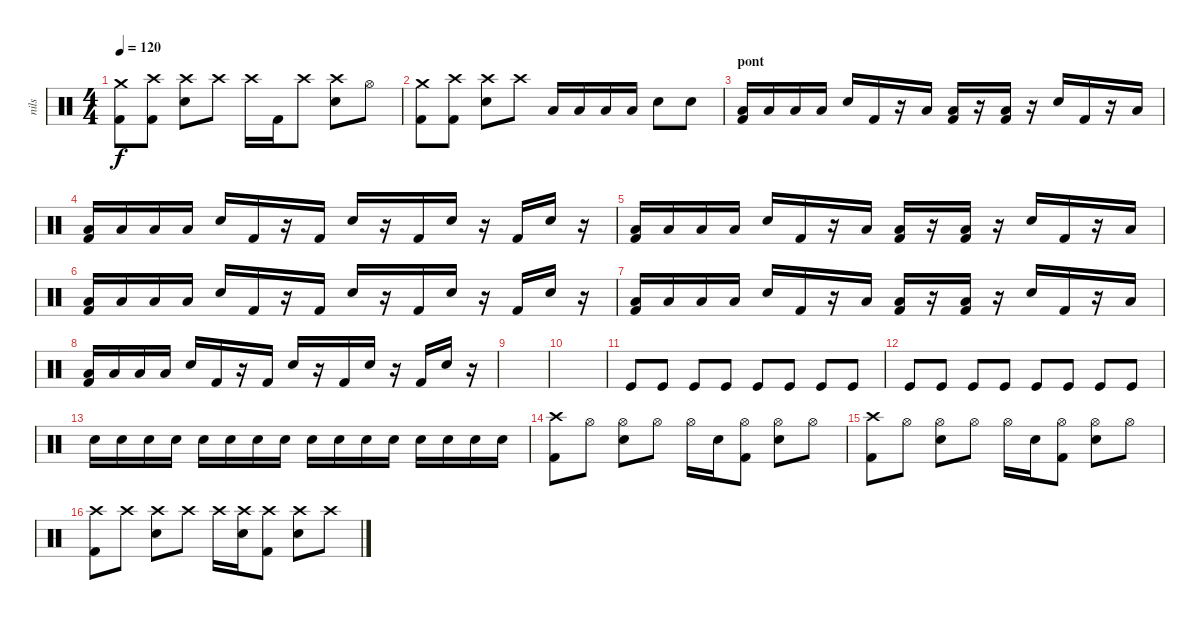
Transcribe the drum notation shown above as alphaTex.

\track ("nils" "nils") {instrument percussion}
\staff {score}
\articulation defaults
\ts (4 4)
\tempo 120
\clef neutral
\ks c
("Crash medium (hit)" "Kick (hit) 2").8{dy f volume 14 balance 8} ("Crash high (hit)" "Kick (hit) 2").8 ("Crash high (hit)" "Snare (hit) 2").8 "Crash high (hit)".8 "Crash high (hit)".16 "Kick (hit) 2".16 "Crash high (hit)".8 ("Crash high (hit)" "Snare (hit) 2").8 "Hi-Hat (open)".8 |
("Crash medium (hit)" "Kick (hit) 2").8{volume 14 balance 8} ("Crash high (hit)" "Kick (hit) 2").8 ("Crash high (hit)" "Snare (hit) 2").8 "Crash high (hit)".8 "Low Floor Tom (hit)".16 "Low Floor Tom (hit)".16 "Low Floor Tom (hit)".16 "Low Floor Tom (hit)".16 "Snare (hit) 2".8 "Snare (hit) 2".8 |
\section ("" "pont")
("Low Floor Tom (hit)" "Kick (hit) 2").16 "Low Floor Tom (hit)".16 "Low Floor Tom (hit)".16 "Low Floor Tom (hit)".16 "Snare (hit) 2".16 "Kick (hit) 2".16 r.16 "Low Tom (hit)".16 ("Low Floor Tom (hit)" "Kick (hit) 2").16 r.16 ("Low Floor Tom (hit)" "Kick (hit) 2").16 r.16 "Snare (hit) 2".16 "Kick (hit) 2".16 r.16 "Low Tom (hit)".16 |
("Low Floor Tom (hit)" "Kick (hit) 2").16 "Low Floor Tom (hit)".16 "Low Floor Tom (hit)".16 "Low Floor Tom (hit)".16 "Snare (hit) 2".16 "Kick (hit) 2".16 r.16 "Kick (hit) 2".16 "Snare (hit) 2".16 r.16 "Kick (hit) 2".16 "Snare (hit) 2".16 r.16 "Kick (hit) 2".16 "Snare (hit) 2".16 r.16 |
("Low Floor Tom (hit)" "Kick (hit) 2").16 "Low Floor Tom (hit)".16 "Low Floor Tom (hit)".16 "Low Floor Tom (hit)".16 "Snare (hit) 2".16 "Kick (hit) 2".16 r.16 "Low Tom (hit)".16 ("Low Floor Tom (hit)" "Kick (hit) 2").16 r.16 ("Low Floor Tom (hit)" "Kick (hit) 2").16 r.16 "Snare (hit) 2".16 "Kick (hit) 2".16 r.16 "Low Tom (hit)".16 |
("Low Floor Tom (hit)" "Kick (hit) 2").16 "Low Floor Tom (hit)".16 "Low Floor Tom (hit)".16 "Low Floor Tom (hit)".16 "Snare (hit) 2".16 "Kick (hit) 2".16 r.16 "Kick (hit) 2".16 "Snare (hit) 2".16 r.16 "Kick (hit) 2".16 "Snare (hit) 2".16 r.16 "Kick (hit) 2".16 "Snare (hit) 2".16 r.16 |
("Low Floor Tom (hit)" "Kick (hit) 2").16 "Low Floor Tom (hit)".16 "Low Floor Tom (hit)".16 "Low Floor Tom (hit)".16 "Snare (hit) 2".16 "Kick (hit) 2".16 r.16 "Low Tom (hit)".16 ("Low Floor Tom (hit)" "Kick (hit) 2").16 r.16 ("Low Floor Tom (hit)" "Kick (hit) 2").16 r.16 "Snare (hit) 2".16 "Kick (hit) 2".16 r.16 "Low Tom (hit)".16 |
("Low Floor Tom (hit)" "Kick (hit) 2").16 "Low Floor Tom (hit)".16 "Low Floor Tom (hit)".16 "Low Floor Tom (hit)".16 "Snare (hit) 2".16 "Kick (hit) 2".16 r.16 "Kick (hit) 2".16 "Snare (hit) 2".16 r.16 "Kick (hit) 2".16 "Snare (hit) 2".16 r.16 "Kick (hit) 2".16 "Snare (hit) 2".16 r.16 |
|
|
"Kick (hit)".8 "Kick (hit)".8 "Kick (hit)".8 "Kick (hit)".8 "Kick (hit)".8 "Kick (hit)".8 "Kick (hit)".8 "Kick (hit)".8 |
"Kick (hit)".8 "Kick (hit)".8 "Kick (hit)".8 "Kick (hit)".8 "Kick (hit)".8 "Kick (hit)".8 "Kick (hit)".8 "Kick (hit)".8 |
"Snare (hit) 2".16 "Snare (hit) 2".16 "Snare (hit) 2".16 "Snare (hit) 2".16 "Snare (hit) 2".16 "Snare (hit) 2".16 "Snare (hit) 2".16 "Snare (hit) 2".16 "Snare (hit) 2".16 "Snare (hit) 2".16 "Snare (hit) 2".16 "Snare (hit) 2".16 "Snare (hit) 2".16 "Snare (hit) 2".16 "Snare (hit) 2".16 "Snare (hit) 2".16 |
("Crash high (hit)" "Kick (hit) 2").8 "Hi-Hat (open)".8 ("Hi-Hat (open)" "Snare (hit) 2").8 "Hi-Hat (open)".8 "Hi-Hat (open)".16 "Snare (hit) 2".16 ("Hi-Hat (open)" "Kick (hit) 2").8 ("Hi-Hat (open)" "Snare (hit) 2").8 "Hi-Hat (open)".8 |
("Crash high (hit)" "Kick (hit) 2").8 "Hi-Hat (open)".8 ("Hi-Hat (open)" "Snare (hit) 2").8 "Hi-Hat (open)".8 "Hi-Hat (open)".16 "Snare (hit) 2".16 ("Hi-Hat (open)" "Kick (hit) 2").8 ("Hi-Hat (open)" "Snare (hit) 2").8 "Hi-Hat (open)".8 |
("Crash high (hit)" "Kick (hit) 2").8 "Crash high (hit)".8 ("Crash high (hit)" "Snare (hit) 2").8 "Crash high (hit)".8 "Crash high (hit)".16 ("Crash high (hit)" "Snare (hit) 2").16 ("Crash high (hit)" "Kick (hit) 2").8 ("Crash high (hit)" "Snare (hit) 2").8 "Crash high (hit)".8
